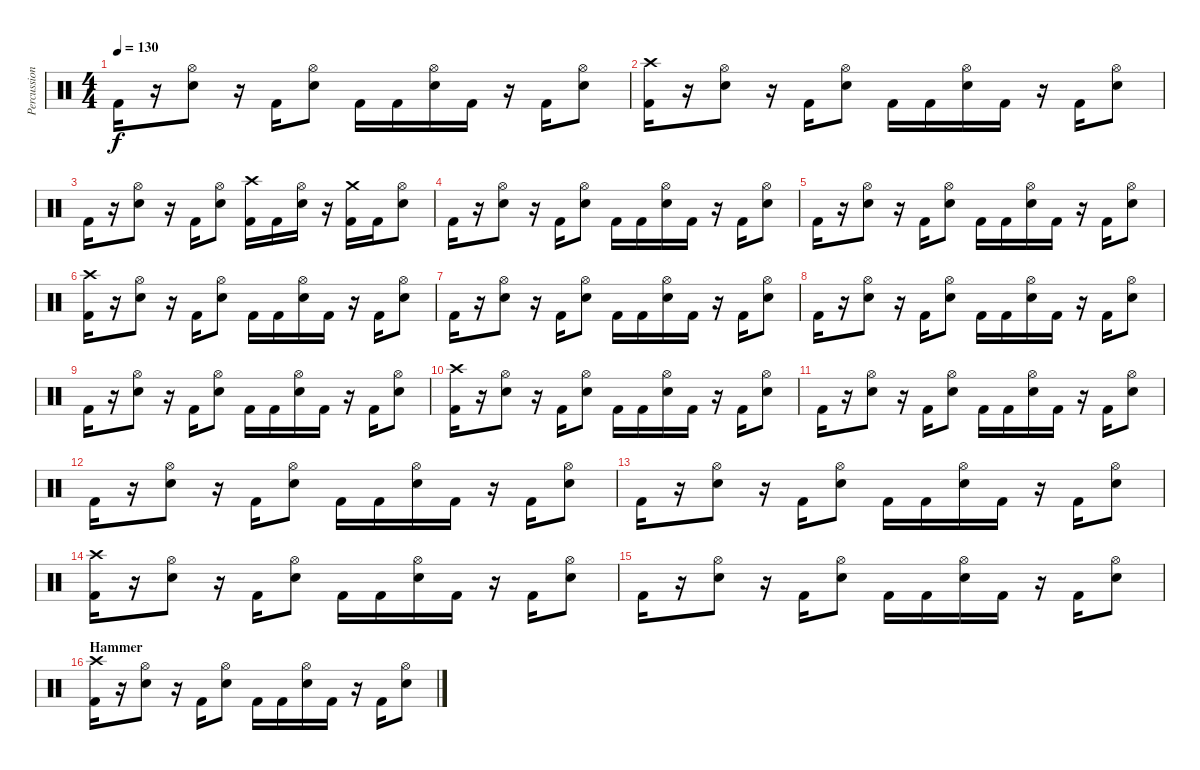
\track ("Percussion" "Percussion") {instrument percussion}
\staff {score}
\articulation defaults
\ts (4 4)
\tempo 130
\clef neutral
\ks c "Kick (hit) 2".16{dy f}
r.16 ("Electric Snare (hit)" "Hi-Hat (open)").8 r.16 "Kick (hit) 2".16 ("Electric Snare (hit)" "Hi-Hat (open)").8 "Kick (hit) 2".16 "Kick (hit) 2".16 ("Electric Snare (hit)" "Hi-Hat (open)").16 "Kick (hit) 2".16 r.16 "Kick (hit) 2".16 ("Electric Snare (hit)" "Hi-Hat (open)").8 |
("Kick (hit) 2" "Crash high (hit)").16 r.16 ("Electric Snare (hit)" "Hi-Hat (open)").8 r.16 "Kick (hit) 2".16 ("Electric Snare (hit)" "Hi-Hat (open)").8 "Kick (hit) 2".16 "Kick (hit) 2".16 ("Electric Snare (hit)" "Hi-Hat (open)").16 "Kick (hit) 2".16 r.16 "Kick (hit) 2".16 ("Electric Snare (hit)" "Hi-Hat (open)").8 |
"Kick (hit) 2".16 r.16 ("Electric Snare (hit)" "Hi-Hat (open)").8 r.16 "Kick (hit) 2".16 ("Electric Snare (hit)" "Hi-Hat (open)").8 ("Kick (hit) 2" "Crash high (hit)").16 "Kick (hit) 2".16 ("Electric Snare (hit)" "Hi-Hat (open)").16 r.16 ("Kick (hit) 2" "Crash medium (hit)").16 "Kick (hit) 2".16 ("Electric Snare (hit)" "Hi-Hat (open)").8 |
"Kick (hit) 2".16 r.16 ("Electric Snare (hit)" "Hi-Hat (open)").8 r.16 "Kick (hit) 2".16 ("Electric Snare (hit)" "Hi-Hat (open)").8 "Kick (hit) 2".16 "Kick (hit) 2".16 ("Electric Snare (hit)" "Hi-Hat (open)").16 "Kick (hit) 2".16 r.16 "Kick (hit) 2".16 ("Electric Snare (hit)" "Hi-Hat (open)").8 |
"Kick (hit) 2".16 r.16 ("Electric Snare (hit)" "Hi-Hat (open)").8 r.16 "Kick (hit) 2".16 ("Electric Snare (hit)" "Hi-Hat (open)").8 "Kick (hit) 2".16 "Kick (hit) 2".16 ("Electric Snare (hit)" "Hi-Hat (open)").16 "Kick (hit) 2".16 r.16 "Kick (hit) 2".16 ("Electric Snare (hit)" "Hi-Hat (open)").8 |
("Kick (hit) 2" "Crash high (hit)").16 r.16 ("Electric Snare (hit)" "Hi-Hat (open)").8 r.16 "Kick (hit) 2".16 ("Electric Snare (hit)" "Hi-Hat (open)").8 "Kick (hit) 2".16 "Kick (hit) 2".16 ("Electric Snare (hit)" "Hi-Hat (open)").16 "Kick (hit) 2".16 r.16 "Kick (hit) 2".16 ("Electric Snare (hit)" "Hi-Hat (open)").8 |
"Kick (hit) 2".16 r.16 ("Electric Snare (hit)" "Hi-Hat (open)").8 r.16 "Kick (hit) 2".16 ("Electric Snare (hit)" "Hi-Hat (open)").8 "Kick (hit) 2".16 "Kick (hit) 2".16 ("Electric Snare (hit)" "Hi-Hat (open)").16 "Kick (hit) 2".16 r.16 "Kick (hit) 2".16 ("Electric Snare (hit)" "Hi-Hat (open)").8 |
"Kick (hit) 2".16 r.16 ("Electric Snare (hit)" "Hi-Hat (open)").8 r.16 "Kick (hit) 2".16 ("Electric Snare (hit)" "Hi-Hat (open)").8 "Kick (hit) 2".16 "Kick (hit) 2".16 ("Electric Snare (hit)" "Hi-Hat (open)").16 "Kick (hit) 2".16 r.16 "Kick (hit) 2".16 ("Electric Snare (hit)" "Hi-Hat (open)").8 |
"Kick (hit) 2".16 r.16 ("Electric Snare (hit)" "Hi-Hat (open)").8 r.16 "Kick (hit) 2".16 ("Electric Snare (hit)" "Hi-Hat (open)").8 "Kick (hit) 2".16 "Kick (hit) 2".16 ("Electric Snare (hit)" "Hi-Hat (open)").16 "Kick (hit) 2".16 r.16 "Kick (hit) 2".16 ("Electric Snare (hit)" "Hi-Hat (open)").8 |
("Kick (hit) 2" "Crash high (hit)").16 r.16 ("Electric Snare (hit)" "Hi-Hat (open)").8 r.16 "Kick (hit) 2".16 ("Electric Snare (hit)" "Hi-Hat (open)").8 "Kick (hit) 2".16 "Kick (hit) 2".16 ("Electric Snare (hit)" "Hi-Hat (open)").16 "Kick (hit) 2".16 r.16 "Kick (hit) 2".16 ("Electric Snare (hit)" "Hi-Hat (open)").8 |
"Kick (hit) 2".16 r.16 ("Electric Snare (hit)" "Hi-Hat (open)").8 r.16 "Kick (hit) 2".16 ("Electric Snare (hit)" "Hi-Hat (open)").8 "Kick (hit) 2".16 "Kick (hit) 2".16 ("Electric Snare (hit)" "Hi-Hat (open)").16 "Kick (hit) 2".16 r.16 "Kick (hit) 2".16 ("Electric Snare (hit)" "Hi-Hat (open)").8 |
"Kick (hit) 2".16 r.16 ("Electric Snare (hit)" "Hi-Hat (open)").8 r.16 "Kick (hit) 2".16 ("Electric Snare (hit)" "Hi-Hat (open)").8 "Kick (hit) 2".16 "Kick (hit) 2".16 ("Electric Snare (hit)" "Hi-Hat (open)").16 "Kick (hit) 2".16 r.16 "Kick (hit) 2".16 ("Electric Snare (hit)" "Hi-Hat (open)").8 |
"Kick (hit) 2".16 r.16 ("Electric Snare (hit)" "Hi-Hat (open)").8 r.16 "Kick (hit) 2".16 ("Electric Snare (hit)" "Hi-Hat (open)").8 "Kick (hit) 2".16 "Kick (hit) 2".16 ("Electric Snare (hit)" "Hi-Hat (open)").16 "Kick (hit) 2".16 r.16 "Kick (hit) 2".16 ("Electric Snare (hit)" "Hi-Hat (open)").8 |
("Kick (hit) 2" "Crash high (hit)").16 r.16 ("Electric Snare (hit)" "Hi-Hat (open)").8 r.16 "Kick (hit) 2".16 ("Electric Snare (hit)" "Hi-Hat (open)").8 "Kick (hit) 2".16 "Kick (hit) 2".16 ("Electric Snare (hit)" "Hi-Hat (open)").16 "Kick (hit) 2".16 r.16 "Kick (hit) 2".16 ("Electric Snare (hit)" "Hi-Hat (open)").8 |
"Kick (hit) 2".16 r.16 ("Electric Snare (hit)" "Hi-Hat (open)").8 r.16 "Kick (hit) 2".16 ("Electric Snare (hit)" "Hi-Hat (open)").8 "Kick (hit) 2".16 "Kick (hit) 2".16 ("Electric Snare (hit)" "Hi-Hat (open)").16 "Kick (hit) 2".16 r.16 "Kick (hit) 2".16 ("Electric Snare (hit)" "Hi-Hat (open)").8 |
\section ("" "Hammer")
("Kick (hit) 2" "Crash high (hit)").16 r.16 ("Electric Snare (hit)" "Hi-Hat (open)").8 r.16 "Kick (hit) 2".16 ("Electric Snare (hit)" "Hi-Hat (open)").8 "Kick (hit) 2".16 "Kick (hit) 2".16 ("Electric Snare (hit)" "Hi-Hat (open)").16 "Kick (hit) 2".16 r.16 "Kick (hit) 2".16 ("Electric Snare (hit)" "Hi-Hat (open)").8
